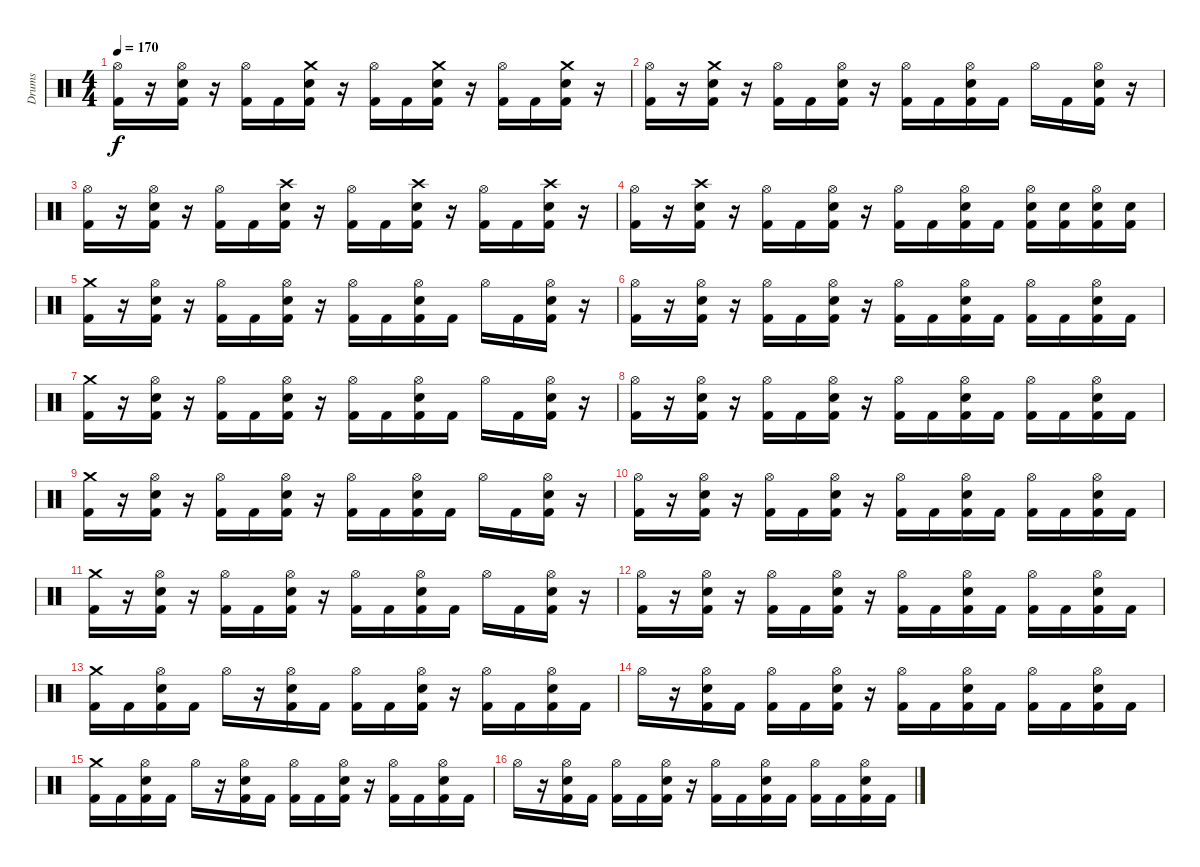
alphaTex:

\track ("Drums" "Drums") {instrument percussion}
\staff {score}
\articulation defaults
\ts (4 4)
\tempo 170
\clef neutral
\ks c
("Hi-Hat (open)" "Kick (hit) 2").16{dy f} r.16 ("Hi-Hat (open)" "Electric Snare (hit)" "Kick (hit) 2").16 r.16 ("Hi-Hat (open)" "Kick (hit) 2").16 "Kick (hit) 2".16 ("Crash medium (hit)" "Electric Snare (hit)" "Kick (hit) 2").16 r.16 ("Hi-Hat (open)" "Kick (hit) 2").16 "Kick (hit) 2".16 ("Crash medium (hit)" "Electric Snare (hit)" "Kick (hit) 2").16 r.16 ("Hi-Hat (open)" "Kick (hit) 2").16 "Kick (hit) 2".16 ("Crash medium (hit)" "Electric Snare (hit)" "Kick (hit) 2").16 r.16 |
("Hi-Hat (open)" "Kick (hit) 2").16 r.16 ("Crash medium (hit)" "Electric Snare (hit)" "Kick (hit) 2").16 r.16 ("Hi-Hat (open)" "Kick (hit) 2").16 "Kick (hit) 2".16 ("Hi-Hat (open)" "Electric Snare (hit)" "Kick (hit) 2").16 r.16 ("Hi-Hat (open)" "Kick (hit) 2").16 "Kick (hit) 2".16 ("Hi-Hat (open)" "Electric Snare (hit)" "Kick (hit) 2").16 "Kick (hit) 2".16 "Hi-Hat (open)".16 "Kick (hit) 2".16 ("Hi-Hat (open)" "Electric Snare (hit)" "Kick (hit) 2").16 r.16 |
("Hi-Hat (open)" "Kick (hit) 2").16 r.16 ("Hi-Hat (open)" "Electric Snare (hit)" "Kick (hit) 2").16 r.16 ("Hi-Hat (open)" "Kick (hit) 2").16 "Kick (hit) 2".16 ("Crash high (hit)" "Electric Snare (hit)" "Kick (hit) 2").16 r.16 ("Hi-Hat (open)" "Kick (hit) 2").16 "Kick (hit) 2".16 ("Crash high (hit)" "Electric Snare (hit)" "Kick (hit) 2").16 r.16 ("Hi-Hat (open)" "Kick (hit) 2").16 "Kick (hit) 2".16 ("Crash high (hit)" "Electric Snare (hit)" "Kick (hit) 2").16 r.16 |
("Hi-Hat (open)" "Kick (hit) 2").16 r.16 ("Crash high (hit)" "Electric Snare (hit)" "Kick (hit) 2").16 r.16 ("Hi-Hat (open)" "Kick (hit) 2").16 "Kick (hit) 2".16 ("Hi-Hat (open)" "Electric Snare (hit)" "Kick (hit) 2").16 r.16 ("Hi-Hat (open)" "Kick (hit) 2").16 "Kick (hit) 2".16 ("Hi-Hat (open)" "Electric Snare (hit)" "Kick (hit) 2").16 "Kick (hit) 2".16 ("Hi-Hat (open)" "Electric Snare (hit)" "Kick (hit) 2").16 ("Electric Snare (hit)" "Kick (hit) 2").16 ("Hi-Hat (open)" "Electric Snare (hit)" "Kick (hit) 2").16 ("Electric Snare (hit)" "Kick (hit) 2").16 |
\section ("" "")
("Crash medium (hit)" "Kick (hit) 2").16 r.16 ("Hi-Hat (open)" "Electric Snare (hit)" "Kick (hit) 2").16 r.16 ("Hi-Hat (open)" "Kick (hit) 2").16 "Kick (hit) 2".16 ("Hi-Hat (open)" "Electric Snare (hit)" "Kick (hit) 2").16 r.16 ("Hi-Hat (open)" "Kick (hit) 2").16 "Kick (hit) 2".16 ("Hi-Hat (open)" "Electric Snare (hit)" "Kick (hit) 2").16 "Kick (hit) 2".16 "Hi-Hat (open)".16 "Kick (hit) 2".16 ("Hi-Hat (open)" "Electric Snare (hit)" "Kick (hit) 2").16 r.16 |
("Hi-Hat (open)" "Kick (hit) 2").16 r.16 ("Hi-Hat (open)" "Electric Snare (hit)" "Kick (hit) 2").16 r.16 ("Hi-Hat (open)" "Kick (hit) 2").16 "Kick (hit) 2".16 ("Hi-Hat (open)" "Electric Snare (hit)" "Kick (hit) 2").16 r.16 ("Hi-Hat (open)" "Kick (hit) 2").16 "Kick (hit) 2".16 ("Hi-Hat (open)" "Electric Snare (hit)" "Kick (hit) 2").16 "Kick (hit) 2".16 ("Hi-Hat (open)" "Kick (hit) 2").16 "Kick (hit) 2".16 ("Hi-Hat (open)" "Electric Snare (hit)" "Kick (hit) 2").16 "Kick (hit) 2".16 |
("Crash medium (hit)" "Kick (hit) 2").16 r.16 ("Hi-Hat (open)" "Electric Snare (hit)" "Kick (hit) 2").16 r.16 ("Hi-Hat (open)" "Kick (hit) 2").16 "Kick (hit) 2".16 ("Hi-Hat (open)" "Electric Snare (hit)" "Kick (hit) 2").16 r.16 ("Hi-Hat (open)" "Kick (hit) 2").16 "Kick (hit) 2".16 ("Hi-Hat (open)" "Electric Snare (hit)" "Kick (hit) 2").16 "Kick (hit) 2".16 "Hi-Hat (open)".16 "Kick (hit) 2".16 ("Hi-Hat (open)" "Electric Snare (hit)" "Kick (hit) 2").16 r.16 |
("Hi-Hat (open)" "Kick (hit) 2").16 r.16 ("Hi-Hat (open)" "Electric Snare (hit)" "Kick (hit) 2").16 r.16 ("Hi-Hat (open)" "Kick (hit) 2").16 "Kick (hit) 2".16 ("Hi-Hat (open)" "Electric Snare (hit)" "Kick (hit) 2").16 r.16 ("Hi-Hat (open)" "Kick (hit) 2").16 "Kick (hit) 2".16 ("Hi-Hat (open)" "Electric Snare (hit)" "Kick (hit) 2").16 "Kick (hit) 2".16 ("Hi-Hat (open)" "Kick (hit) 2").16 "Kick (hit) 2".16 ("Hi-Hat (open)" "Electric Snare (hit)" "Kick (hit) 2").16 "Kick (hit) 2".16 |
("Crash medium (hit)" "Kick (hit) 2").16 r.16 ("Hi-Hat (open)" "Electric Snare (hit)" "Kick (hit) 2").16 r.16 ("Hi-Hat (open)" "Kick (hit) 2").16 "Kick (hit) 2".16 ("Hi-Hat (open)" "Electric Snare (hit)" "Kick (hit) 2").16 r.16 ("Hi-Hat (open)" "Kick (hit) 2").16 "Kick (hit) 2".16 ("Hi-Hat (open)" "Electric Snare (hit)" "Kick (hit) 2").16 "Kick (hit) 2".16 "Hi-Hat (open)".16 "Kick (hit) 2".16 ("Hi-Hat (open)" "Electric Snare (hit)" "Kick (hit) 2").16 r.16 |
("Hi-Hat (open)" "Kick (hit) 2").16 r.16 ("Hi-Hat (open)" "Electric Snare (hit)" "Kick (hit) 2").16 r.16 ("Hi-Hat (open)" "Kick (hit) 2").16 "Kick (hit) 2".16 ("Hi-Hat (open)" "Electric Snare (hit)" "Kick (hit) 2").16 r.16 ("Hi-Hat (open)" "Kick (hit) 2").16 "Kick (hit) 2".16 ("Hi-Hat (open)" "Electric Snare (hit)" "Kick (hit) 2").16 "Kick (hit) 2".16 ("Hi-Hat (open)" "Kick (hit) 2").16 "Kick (hit) 2".16 ("Hi-Hat (open)" "Electric Snare (hit)" "Kick (hit) 2").16 "Kick (hit) 2".16 |
("Crash medium (hit)" "Kick (hit) 2").16 r.16 ("Hi-Hat (open)" "Electric Snare (hit)" "Kick (hit) 2").16 r.16 ("Hi-Hat (open)" "Kick (hit) 2").16 "Kick (hit) 2".16 ("Hi-Hat (open)" "Electric Snare (hit)" "Kick (hit) 2").16 r.16 ("Hi-Hat (open)" "Kick (hit) 2").16 "Kick (hit) 2".16 ("Hi-Hat (open)" "Electric Snare (hit)" "Kick (hit) 2").16 "Kick (hit) 2".16 "Hi-Hat (open)".16 "Kick (hit) 2".16 ("Hi-Hat (open)" "Electric Snare (hit)" "Kick (hit) 2").16 r.16 |
("Hi-Hat (open)" "Kick (hit) 2").16 r.16 ("Hi-Hat (open)" "Electric Snare (hit)" "Kick (hit) 2").16 r.16 ("Hi-Hat (open)" "Kick (hit) 2").16 "Kick (hit) 2".16 ("Hi-Hat (open)" "Electric Snare (hit)" "Kick (hit) 2").16 r.16 ("Hi-Hat (open)" "Kick (hit) 2").16 "Kick (hit) 2".16 ("Hi-Hat (open)" "Electric Snare (hit)" "Kick (hit) 2").16 "Kick (hit) 2".16 ("Hi-Hat (open)" "Kick (hit) 2").16 "Kick (hit) 2".16 ("Hi-Hat (open)" "Electric Snare (hit)" "Kick (hit) 2").16 "Kick (hit) 2".16 |
("Crash medium (hit)" "Kick (hit) 2").16 "Kick (hit) 2".16 ("Hi-Hat (open)" "Electric Snare (hit)" "Kick (hit) 2").16 "Kick (hit) 2".16 "Hi-Hat (open)".16 r.16 ("Hi-Hat (open)" "Electric Snare (hit)" "Kick (hit) 2").16 "Kick (hit) 2".16 ("Hi-Hat (open)" "Kick (hit) 2").16 "Kick (hit) 2".16 ("Hi-Hat (open)" "Electric Snare (hit)" "Kick (hit) 2").16 r.16 ("Hi-Hat (open)" "Kick (hit) 2").16 "Kick (hit) 2".16 ("Hi-Hat (open)" "Electric Snare (hit)" "Kick (hit) 2").16 "Kick (hit) 2".16 |
"Hi-Hat (open)".16 r.16 ("Hi-Hat (open)" "Electric Snare (hit)" "Kick (hit) 2").16 "Kick (hit) 2".16 ("Hi-Hat (open)" "Kick (hit) 2").16 "Kick (hit) 2".16 ("Hi-Hat (open)" "Electric Snare (hit)" "Kick (hit) 2").16 r.16 ("Hi-Hat (open)" "Kick (hit) 2").16 "Kick (hit) 2".16 ("Hi-Hat (open)" "Electric Snare (hit)" "Kick (hit) 2").16 "Kick (hit) 2".16 ("Hi-Hat (open)" "Kick (hit) 2").16 "Kick (hit) 2".16 ("Hi-Hat (open)" "Electric Snare (hit)" "Kick (hit) 2").16 "Kick (hit) 2".16 |
("Crash medium (hit)" "Kick (hit) 2").16 "Kick (hit) 2".16 ("Hi-Hat (open)" "Electric Snare (hit)" "Kick (hit) 2").16 "Kick (hit) 2".16 "Hi-Hat (open)".16 r.16 ("Hi-Hat (open)" "Electric Snare (hit)" "Kick (hit) 2").16 "Kick (hit) 2".16 ("Hi-Hat (open)" "Kick (hit) 2").16 "Kick (hit) 2".16 ("Hi-Hat (open)" "Electric Snare (hit)" "Kick (hit) 2").16 r.16 ("Hi-Hat (open)" "Kick (hit) 2").16 "Kick (hit) 2".16 ("Hi-Hat (open)" "Electric Snare (hit)" "Kick (hit) 2").16 "Kick (hit) 2".16 |
"Hi-Hat (open)".16 r.16 ("Hi-Hat (open)" "Electric Snare (hit)" "Kick (hit) 2").16 "Kick (hit) 2".16 ("Hi-Hat (open)" "Kick (hit) 2").16 "Kick (hit) 2".16 ("Hi-Hat (open)" "Electric Snare (hit)" "Kick (hit) 2").16 r.16 ("Hi-Hat (open)" "Kick (hit) 2").16 "Kick (hit) 2".16 ("Hi-Hat (open)" "Electric Snare (hit)" "Kick (hit) 2").16 "Kick (hit) 2".16 ("Hi-Hat (open)" "Kick (hit) 2").16 "Kick (hit) 2".16 ("Hi-Hat (open)" "Electric Snare (hit)" "Kick (hit) 2").16 "Kick (hit) 2".16
